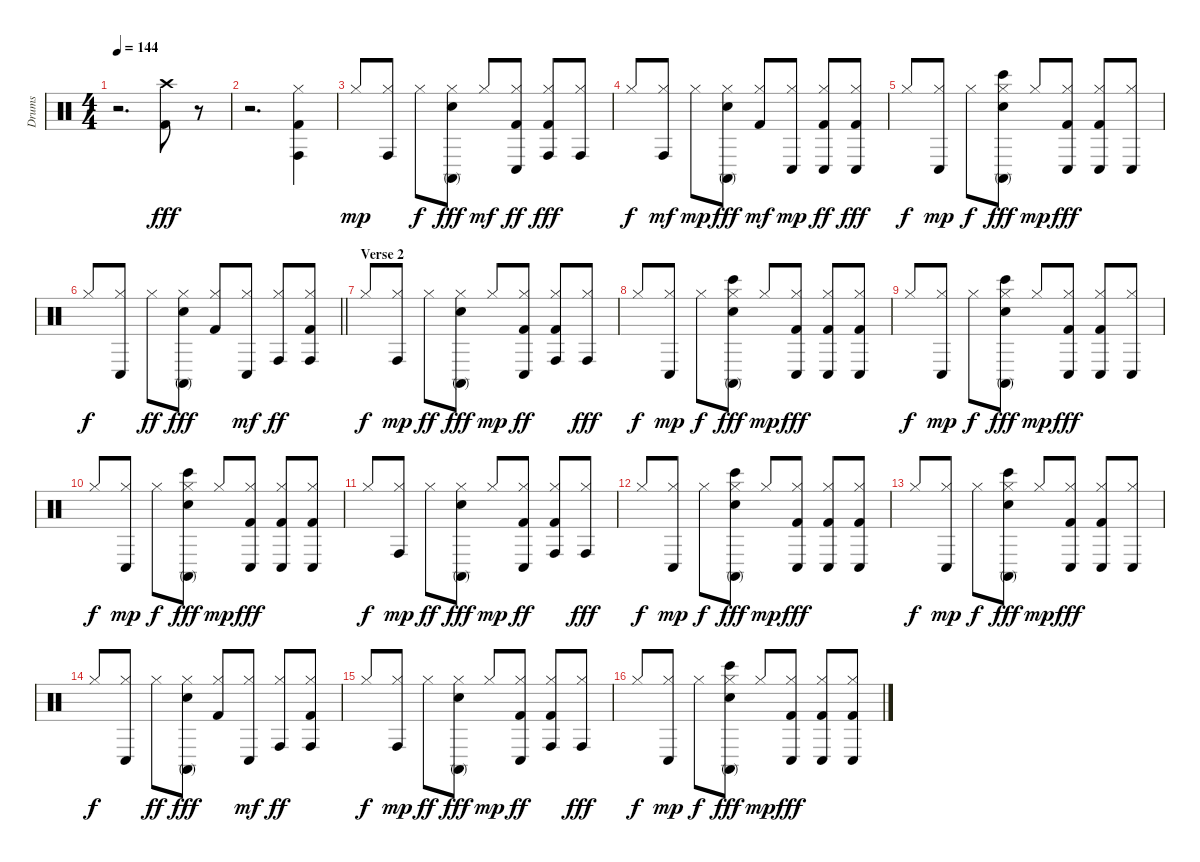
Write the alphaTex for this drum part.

\track ("Drums" "Drums") {instrument percussion}
\staff {score}
\articulation defaults
\ts (4 4)
\tempo 144
\clef neutral
\ks c
r.2{d dy fff} ("Crash high (hit)" "Kick (hit) 2").8 r.8 |
r.2{d} ("Conga high (hit)" "Kick (hit) 2" "Hi-Hat (closed)").4 |
"Hi-Hat (closed)".8{dy mp} ("Conga high (hit)" "Hi-Hat (closed)").8 "Hi-Hat (closed)".8{dy f} ("Conga high (mute)" "Snare (hit) 2" "Hi-Hat (closed)").8{dy fff} "Hi-Hat (closed)".8{dy mf} ("Conga low (hit)" "Kick (hit) 2" "Hi-Hat (closed)").8{dy ff} ("Conga high (hit)" "Kick (hit) 2" "Hi-Hat (closed)").8{dy fff} ("Conga high (hit)" "Hi-Hat (closed)").8 |
"Hi-Hat (closed)".8{dy f} ("Conga high (hit)" "Hi-Hat (closed)").8{dy mf} "Hi-Hat (closed)".8{dy mp} ("Conga high (mute)" "Snare (hit) 2" "Hi-Hat (closed)").8{dy fff} ("Kick (hit) 2" "Hi-Hat (closed)").8{dy mf} ("Conga low (hit)" "Hi-Hat (closed)").8{dy mp} ("Conga low (hit)" "Kick (hit) 2" "Hi-Hat (closed)").8{dy ff} ("Conga low (hit)" "Kick (hit) 2" "Hi-Hat (closed)").8{dy fff} |
"Hi-Hat (closed)".8{dy f} ("Conga low (hit)" "Hi-Hat (closed)").8{dy mp} "Hi-Hat (closed)".8{dy f} ("Bongo High (hit)" "Snare (hit) 2" "Conga high (mute)" "Hi-Hat (closed)").8{dy fff} "Hi-Hat (closed)".8{dy mp} ("Conga low (hit)" "Kick (hit) 2" "Hi-Hat (closed)").8{dy fff} ("Conga low (hit)" "Kick (hit) 2" "Hi-Hat (closed)").8 ("Conga low (hit)" "Hi-Hat (closed)").8 |
\barLineRight lightlight "Hi-Hat (closed)".8{dy f}
("Conga low (hit)" "Hi-Hat (closed)").8 "Hi-Hat (closed)".8{dy ff} ("Conga high (mute)" "Snare (hit) 2" "Hi-Hat (closed)").8{dy fff} ("Kick (hit) 2" "Hi-Hat (closed)").8 ("Conga low (hit)" "Hi-Hat (closed)").8{dy mf} ("Conga high (hit)" "Hi-Hat (closed)").8{dy ff} ("Conga high (hit)" "Kick (hit) 2" "Hi-Hat (closed)").8 |
\section ("" "Verse 2")
"Hi-Hat (closed)".8{dy f} ("Conga high (hit)" "Hi-Hat (closed)").8{dy mp} "Hi-Hat (closed)".8{dy ff} ("Conga high (mute)" "Snare (hit) 2" "Hi-Hat (closed)").8{dy fff} "Hi-Hat (closed)".8{dy mp} ("Conga low (hit)" "Kick (hit) 2" "Hi-Hat (closed)").8{dy ff} ("Conga high (hit)" "Kick (hit) 2" "Hi-Hat (closed)").8 ("Conga high (hit)" "Hi-Hat (closed)").8{dy fff} |
"Hi-Hat (closed)".8{dy f} ("Conga low (hit)" "Hi-Hat (closed)").8{dy mp} "Hi-Hat (closed)".8{dy f} ("Bongo High (hit)" "Snare (hit) 2" "Conga high (mute)" "Hi-Hat (closed)").8{dy fff} "Hi-Hat (closed)".8{dy mp} ("Conga low (hit)" "Kick (hit) 2" "Hi-Hat (closed)").8{dy fff} ("Conga low (hit)" "Kick (hit) 2" "Hi-Hat (closed)").8 ("Conga low (hit)" "Kick (hit) 2" "Hi-Hat (closed)").8 |
"Hi-Hat (closed)".8{dy f} ("Conga low (hit)" "Hi-Hat (closed)").8{dy mp} "Hi-Hat (closed)".8{dy f} ("Bongo High (hit)" "Snare (hit) 2" "Conga high (mute)" "Hi-Hat (closed)").8{dy fff} "Hi-Hat (closed)".8{dy mp} ("Conga low (hit)" "Kick (hit) 2" "Hi-Hat (closed)").8{dy fff} ("Conga low (hit)" "Kick (hit) 2" "Hi-Hat (closed)").8 ("Conga low (hit)" "Hi-Hat (closed)").8 |
"Hi-Hat (closed)".8{dy f} ("Conga low (hit)" "Hi-Hat (closed)").8{dy mp} "Hi-Hat (closed)".8{dy f} ("Bongo High (hit)" "Snare (hit) 2" "Conga high (mute)" "Hi-Hat (closed)").8{dy fff} "Hi-Hat (closed)".8{dy mp} ("Conga low (hit)" "Kick (hit) 2" "Hi-Hat (closed)").8{dy fff} ("Conga low (hit)" "Kick (hit) 2" "Hi-Hat (closed)").8 ("Conga low (hit)" "Kick (hit) 2" "Hi-Hat (closed)").8 |
"Hi-Hat (closed)".8{dy f} ("Conga high (hit)" "Hi-Hat (closed)").8{dy mp} "Hi-Hat (closed)".8{dy ff} ("Conga high (mute)" "Snare (hit) 2" "Hi-Hat (closed)").8{dy fff} "Hi-Hat (closed)".8{dy mp} ("Conga low (hit)" "Kick (hit) 2" "Hi-Hat (closed)").8{dy ff} ("Conga high (hit)" "Kick (hit) 2" "Hi-Hat (closed)").8 ("Conga high (hit)" "Hi-Hat (closed)").8{dy fff} |
"Hi-Hat (closed)".8{dy f} ("Conga low (hit)" "Hi-Hat (closed)").8{dy mp} "Hi-Hat (closed)".8{dy f} ("Bongo High (hit)" "Snare (hit) 2" "Conga high (mute)" "Hi-Hat (closed)").8{dy fff} "Hi-Hat (closed)".8{dy mp} ("Conga low (hit)" "Kick (hit) 2" "Hi-Hat (closed)").8{dy fff} ("Conga low (hit)" "Kick (hit) 2" "Hi-Hat (closed)").8 ("Conga low (hit)" "Kick (hit) 2" "Hi-Hat (closed)").8 |
"Hi-Hat (closed)".8{dy f} ("Conga low (hit)" "Hi-Hat (closed)").8{dy mp} "Hi-Hat (closed)".8{dy f} ("Bongo High (hit)" "Snare (hit) 2" "Conga high (mute)" "Hi-Hat (closed)").8{dy fff} "Hi-Hat (closed)".8{dy mp} ("Conga low (hit)" "Kick (hit) 2" "Hi-Hat (closed)").8{dy fff} ("Conga low (hit)" "Kick (hit) 2" "Hi-Hat (closed)").8 ("Conga low (hit)" "Hi-Hat (closed)").8 |
"Hi-Hat (closed)".8{dy f} ("Conga low (hit)" "Hi-Hat (closed)").8 "Hi-Hat (closed)".8{dy ff} ("Conga high (mute)" "Snare (hit) 2" "Hi-Hat (closed)").8{dy fff} ("Kick (hit) 2" "Hi-Hat (closed)").8 ("Conga low (hit)" "Hi-Hat (closed)").8{dy mf} ("Conga high (hit)" "Hi-Hat (closed)").8{dy ff} ("Conga high (hit)" "Kick (hit) 2" "Hi-Hat (closed)").8 |
"Hi-Hat (closed)".8{dy f} ("Conga high (hit)" "Hi-Hat (closed)").8{dy mp} "Hi-Hat (closed)".8{dy ff} ("Conga high (mute)" "Snare (hit) 2" "Hi-Hat (closed)").8{dy fff} "Hi-Hat (closed)".8{dy mp} ("Conga low (hit)" "Kick (hit) 2" "Hi-Hat (closed)").8{dy ff} ("Conga high (hit)" "Kick (hit) 2" "Hi-Hat (closed)").8 ("Conga high (hit)" "Hi-Hat (closed)").8{dy fff} |
"Hi-Hat (closed)".8{dy f} ("Conga low (hit)" "Hi-Hat (closed)").8{dy mp} "Hi-Hat (closed)".8{dy f} ("Bongo High (hit)" "Snare (hit) 2" "Conga high (mute)" "Hi-Hat (closed)").8{dy fff} "Hi-Hat (closed)".8{dy mp} ("Conga low (hit)" "Kick (hit) 2" "Hi-Hat (closed)").8{dy fff} ("Conga low (hit)" "Kick (hit) 2" "Hi-Hat (closed)").8 ("Conga low (hit)" "Kick (hit) 2" "Hi-Hat (closed)").8
